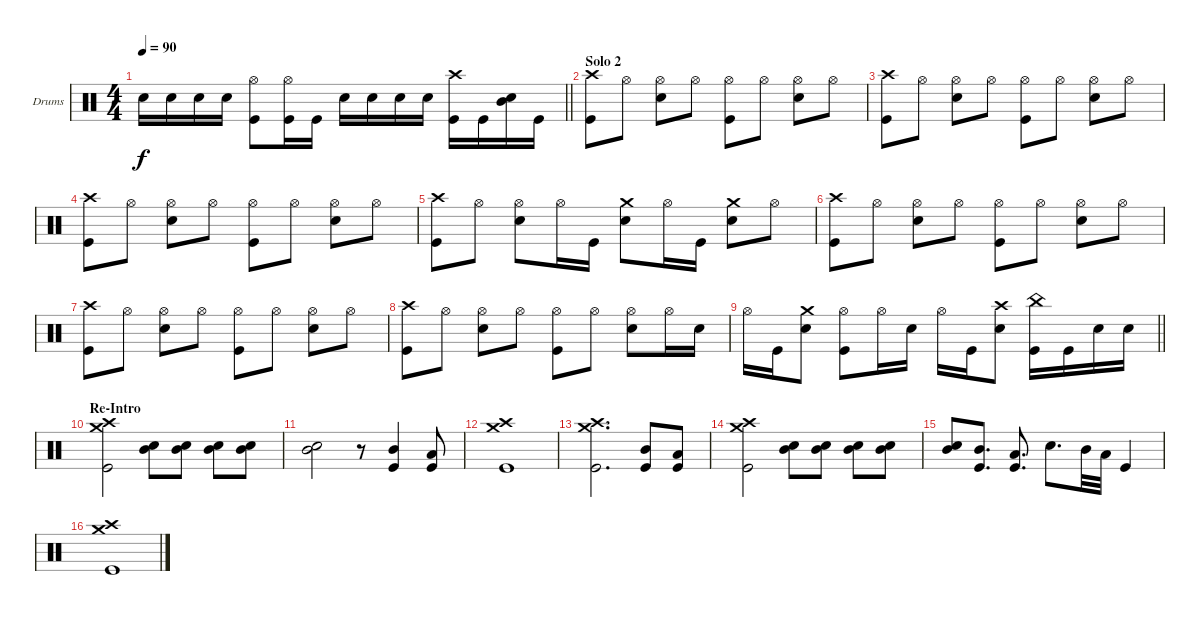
\bracketExtendMode groupsimilarinstruments
\firstSystemTrackNameOrientation horizontal
\otherSystemsTrackNameOrientation horizontal
\track ("Drumkit" "Drums") {instrument percussion}
\staff {score}
\articulation defaults
\ts (4 4)
\tempo 90
\clef neutral
\barLineRight lightlight
\ks c "Snare (hit) 2".16{dy f} "Snare (hit) 2".16 "Snare (hit) 2".16 "Snare (hit) 2".16
("Hi-Hat (open)" "Kick (hit)").8 ("Hi-Hat (open)" "Kick (hit)").16 "Kick (hit)".16 "Snare (hit) 2".16 "Snare (hit) 2".16 "Snare (hit) 2".16 "Snare (hit) 2".16 ("Crash high (hit)" "Kick (hit)").16 "Kick (hit)".16 ("Snare (hit) 2" "Mid Tom (hit)").16 "Kick (hit)".16 |
\section ("" "Solo 2")
("Crash high (hit)" "Kick (hit)").8 "Hi-Hat (open)".8 ("Hi-Hat (open)" "Snare (hit) 2").8 "Hi-Hat (open)".8 ("Hi-Hat (open)" "Kick (hit)").8 "Hi-Hat (open)".8 ("Hi-Hat (open)" "Snare (hit) 2").8 "Hi-Hat (open)".8 |
("Crash high (hit)" "Kick (hit)").8 "Hi-Hat (open)".8 ("Hi-Hat (open)" "Snare (hit) 2").8 "Hi-Hat (open)".8 ("Hi-Hat (open)" "Kick (hit)").8 "Hi-Hat (open)".8 ("Hi-Hat (open)" "Snare (hit) 2").8 "Hi-Hat (open)".8 |
("Crash high (hit)" "Kick (hit)").8 "Hi-Hat (open)".8 ("Hi-Hat (open)" "Snare (hit) 2").8 "Hi-Hat (open)".8 ("Hi-Hat (open)" "Kick (hit)").8 "Hi-Hat (open)".8 ("Hi-Hat (open)" "Snare (hit) 2").8 "Hi-Hat (open)".8 |
("Crash high (hit)" "Kick (hit)").8 "Hi-Hat (open)".8 ("Hi-Hat (open)" "Snare (hit) 2").8 "Hi-Hat (open)".16 "Kick (hit)".16 ("Crash medium (hit)" "Snare (hit) 2").8 "Hi-Hat (open)".16 "Kick (hit)".16 ("Crash medium (hit)" "Snare (hit) 2").8 "Hi-Hat (open)".8 |
("Crash high (hit)" "Kick (hit)").8 "Hi-Hat (open)".8 ("Hi-Hat (open)" "Snare (hit) 2").8 "Hi-Hat (open)".8 ("Hi-Hat (open)" "Kick (hit)").8 "Hi-Hat (open)".8 ("Hi-Hat (open)" "Snare (hit) 2").8 "Hi-Hat (open)".8 |
("Crash high (hit)" "Kick (hit)").8 "Hi-Hat (open)".8 ("Hi-Hat (open)" "Snare (hit) 2").8 "Hi-Hat (open)".8 ("Hi-Hat (open)" "Kick (hit)").8 "Hi-Hat (open)".8 ("Hi-Hat (open)" "Snare (hit) 2").8 "Hi-Hat (open)".8 |
("Crash high (hit)" "Kick (hit)").8 "Hi-Hat (open)".8 ("Hi-Hat (open)" "Snare (hit) 2").8 "Hi-Hat (open)".8 ("Hi-Hat (open)" "Kick (hit)").8 "Hi-Hat (open)".8 ("Hi-Hat (open)" "Snare (hit) 2").8 "Hi-Hat (open)".16 "Snare (hit) 2".16 |
\barLineRight lightlight "Hi-Hat (open)".16 "Kick (hit)".16
("Crash medium (hit)" "Snare (hit) 2").8 ("Hi-Hat (open)" "Kick (hit)").8 "Hi-Hat (open)".16 "Snare (hit) 2".16 "Hi-Hat (open)".16 "Kick (hit)".16 ("Crash high (hit)" "Snare (hit) 2").8 ("China (hit)" "Kick (hit)").16 "Kick (hit)".16 "Snare (hit) 2".16 "Snare (hit) 2".16 |
\section ("" "Re-Intro")
("Crash high (hit)" "Crash medium (hit)" "Kick (hit)").2 ("Snare (hit) 2" "Mid Tom (hit)").8 ("Snare (hit) 2" "Mid Tom (hit)").8 ("Snare (hit) 2" "Mid Tom (hit)").8 ("Snare (hit) 2" "Mid Tom (hit)").8 |
("Snare (hit) 2" "Mid Tom (hit)").2 r.8 ("Mid Tom (hit)" "Kick (hit)").4 ("Low Tom (hit)" "Kick (hit)").8 |
("Crash high (hit)" "Crash medium (hit)" "Kick (hit)").1 |
("Crash high (hit)" "Crash medium (hit)" "Kick (hit)").2{d} ("Mid Tom (hit)" "Kick (hit)").8 ("Low Tom (hit)" "Kick (hit)").8 |
("Crash high (hit)" "Crash medium (hit)" "Kick (hit)").2 ("Snare (hit) 2" "Mid Tom (hit)").8 ("Snare (hit) 2" "Mid Tom (hit)").8 ("Snare (hit) 2" "Mid Tom (hit)").8 ("Snare (hit) 2" "Mid Tom (hit)").8 |
("Snare (hit) 2" "Mid Tom (hit)").8 ("Mid Tom (hit)" "Kick (hit)").8{d} ("Low Tom (hit)" "Kick (hit)").8{d} "Snare (hit) 2".8{d} "Mid Tom (hit)".32 "Low Tom (hit)".32 "Kick (hit)".4 |
("Crash high (hit)" "Crash medium (hit)" "Kick (hit)").1
